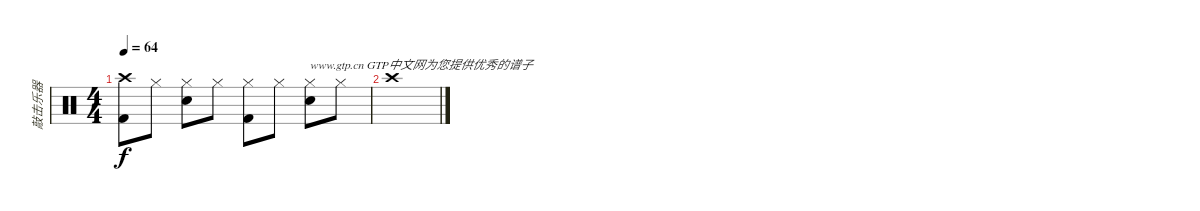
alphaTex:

\track ("敲击乐器" "敲击乐器") {instrument percussion}
\staff {score}
\articulation defaults
\ts (4 4)
\tempo 64
\clef neutral
\ks c
("Kick (hit) 2" "Crash high (hit)").8{dy f} "Hi-Hat (closed)".8 ("Snare (hit) 2" "Hi-Hat (closed)").8 "Hi-Hat (closed)".8 ("Kick (hit) 2" "Hi-Hat (closed)").8 "Hi-Hat (closed)".8 ("Snare (hit) 2" "Hi-Hat (closed)").8{txt "www.gtp.cn GTP中文网为您提供优秀的谱子"} "Hi-Hat (closed)".8 |
"Crash high (hit)".1
